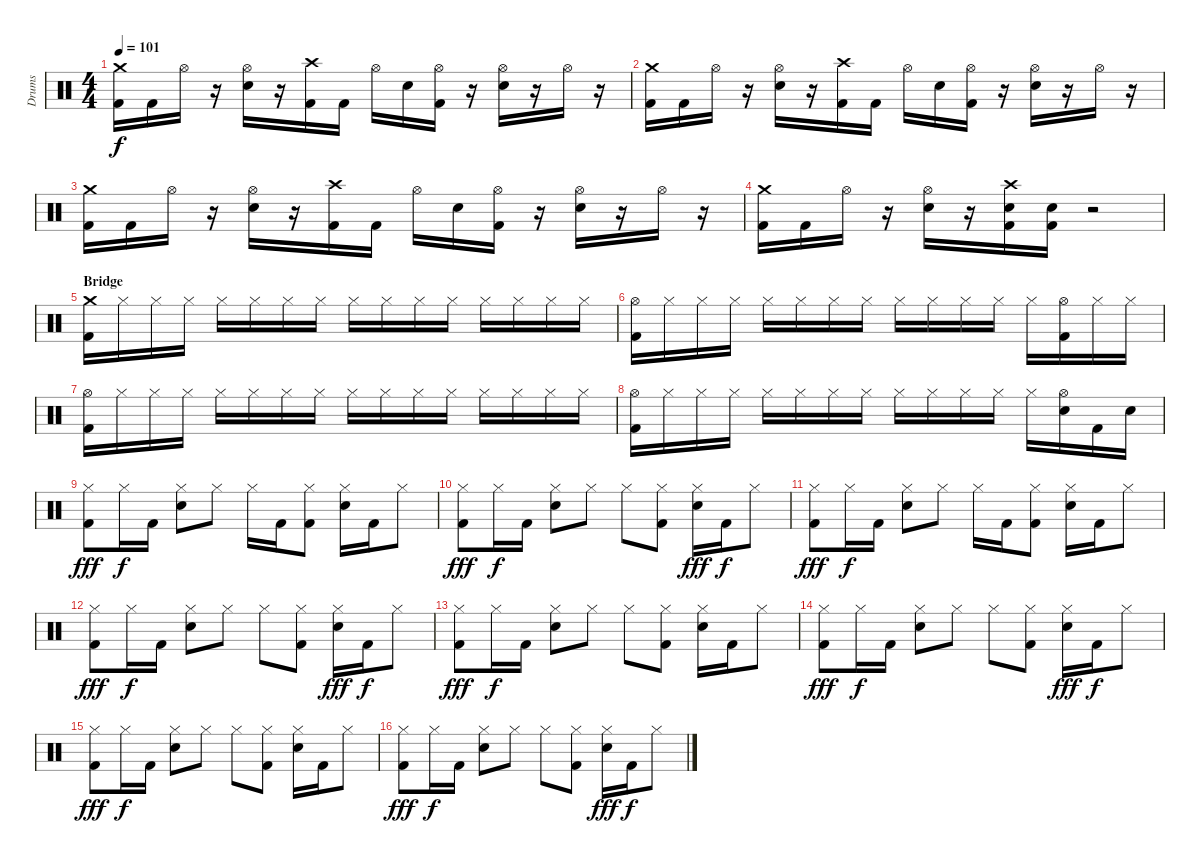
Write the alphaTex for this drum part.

\track ("Drums" "Drums") {instrument percussion}
\staff {score}
\articulation defaults
\ts (4 4)
\tempo 101
\clef neutral
\ks c
("Crash medium (hit)" "Kick (hit) 2").16{dy f} "Kick (hit) 2".16 "Hi-Hat (open)".16 r.16 ("Hi-Hat (open)" "Electric Snare (hit)").16 r.16 ("Crash high (hit)" "Kick (hit) 2").16 "Kick (hit) 2".16 "Hi-Hat (open)".16 "Electric Snare (hit)".16 ("Hi-Hat (open)" "Kick (hit) 2").16 r.16 ("Hi-Hat (open)" "Electric Snare (hit)").16 r.16 "Hi-Hat (open)".16 r.16 |
("Crash medium (hit)" "Kick (hit) 2").16 "Kick (hit) 2".16 "Hi-Hat (open)".16 r.16 ("Hi-Hat (open)" "Electric Snare (hit)").16 r.16 ("Crash high (hit)" "Kick (hit) 2").16 "Kick (hit) 2".16 "Hi-Hat (open)".16 "Electric Snare (hit)".16 ("Hi-Hat (open)" "Kick (hit) 2").16 r.16 ("Hi-Hat (open)" "Electric Snare (hit)").16 r.16 "Hi-Hat (open)".16 r.16 |
("Crash medium (hit)" "Kick (hit) 2").16 "Kick (hit) 2".16 "Hi-Hat (open)".16 r.16 ("Hi-Hat (open)" "Electric Snare (hit)").16 r.16 ("Crash high (hit)" "Kick (hit) 2").16 "Kick (hit) 2".16 "Hi-Hat (open)".16 "Electric Snare (hit)".16 ("Hi-Hat (open)" "Kick (hit) 2").16 r.16 ("Hi-Hat (open)" "Electric Snare (hit)").16 r.16 "Hi-Hat (open)".16 r.16 |
("Crash medium (hit)" "Kick (hit) 2").16 "Kick (hit) 2".16 "Hi-Hat (open)".16 r.16 ("Hi-Hat (open)" "Electric Snare (hit)").16 r.16 ("Crash high (hit)" "Electric Snare (hit)" "Kick (hit) 2").16 ("Electric Snare (hit)" "Kick (hit) 2").16 r.2 |
\section ("" "Bridge")
("Crash medium (hit)" "Kick (hit) 2").16 "Hi-Hat (closed)".16 "Hi-Hat (closed)".16 "Hi-Hat (closed)".16 "Hi-Hat (closed)".16 "Hi-Hat (closed)".16 "Hi-Hat (closed)".16 "Hi-Hat (closed)".16 "Hi-Hat (closed)".16 "Hi-Hat (closed)".16 "Hi-Hat (closed)".16 "Hi-Hat (closed)".16 "Hi-Hat (closed)".16 "Hi-Hat (closed)".16 "Hi-Hat (closed)".16 "Hi-Hat (closed)".16 |
("Hi-Hat (open)" "Kick (hit) 2").16 "Hi-Hat (closed)".16 "Hi-Hat (closed)".16 "Hi-Hat (closed)".16 "Hi-Hat (closed)".16 "Hi-Hat (closed)".16 "Hi-Hat (closed)".16 "Hi-Hat (closed)".16 "Hi-Hat (closed)".16 "Hi-Hat (closed)".16 "Hi-Hat (closed)".16 "Hi-Hat (closed)".16 "Hi-Hat (closed)".16 ("Hi-Hat (open)" "Kick (hit) 2").16 "Hi-Hat (closed)".16 "Hi-Hat (closed)".16 |
("Hi-Hat (open)" "Kick (hit) 2").16 "Hi-Hat (closed)".16 "Hi-Hat (closed)".16 "Hi-Hat (closed)".16 "Hi-Hat (closed)".16 "Hi-Hat (closed)".16 "Hi-Hat (closed)".16 "Hi-Hat (closed)".16 "Hi-Hat (closed)".16 "Hi-Hat (closed)".16 "Hi-Hat (closed)".16 "Hi-Hat (closed)".16 "Hi-Hat (closed)".16 "Hi-Hat (closed)".16 "Hi-Hat (closed)".16 "Hi-Hat (closed)".16 |
("Hi-Hat (open)" "Kick (hit) 2").16 "Hi-Hat (closed)".16 "Hi-Hat (closed)".16 "Hi-Hat (closed)".16 "Hi-Hat (closed)".16 "Hi-Hat (closed)".16 "Hi-Hat (closed)".16 "Hi-Hat (closed)".16 "Hi-Hat (closed)".16 "Hi-Hat (closed)".16 "Hi-Hat (closed)".16 "Hi-Hat (closed)".16 "Hi-Hat (closed)".16 ("Hi-Hat (open)" "Electric Snare (hit)").16 "Kick (hit) 2".16 "Electric Snare (hit)".16 |
("Hi-Hat (closed)" "Kick (hit) 2").8{dy fff} "Hi-Hat (closed)".16{dy f} "Kick (hit) 2".16 ("Hi-Hat (closed)" "Electric Snare (hit)").8 "Hi-Hat (closed)".8 "Hi-Hat (closed)".16 "Kick (hit) 2".16 ("Hi-Hat (closed)" "Kick (hit) 2").8 ("Hi-Hat (closed)" "Electric Snare (hit)").16 "Kick (hit) 2".16 "Hi-Hat (closed)".8 |
("Hi-Hat (closed)" "Kick (hit) 2").8{dy fff} "Hi-Hat (closed)".16{dy f} "Kick (hit) 2".16 ("Hi-Hat (closed)" "Electric Snare (hit)").8 "Hi-Hat (closed)".8 "Hi-Hat (closed)".8 ("Hi-Hat (closed)" "Kick (hit) 2").8 ("Hi-Hat (closed)" "Electric Snare (hit)").16{dy fff} "Kick (hit) 2".16{dy f} "Hi-Hat (closed)".8 |
("Hi-Hat (closed)" "Kick (hit) 2").8{dy fff} "Hi-Hat (closed)".16{dy f} "Kick (hit) 2".16 ("Hi-Hat (closed)" "Electric Snare (hit)").8 "Hi-Hat (closed)".8 "Hi-Hat (closed)".16 "Kick (hit) 2".16 ("Hi-Hat (closed)" "Kick (hit) 2").8 ("Hi-Hat (closed)" "Electric Snare (hit)").16 "Kick (hit) 2".16 "Hi-Hat (closed)".8 |
("Hi-Hat (closed)" "Kick (hit) 2").8{dy fff} "Hi-Hat (closed)".16{dy f} "Kick (hit) 2".16 ("Hi-Hat (closed)" "Electric Snare (hit)").8 "Hi-Hat (closed)".8 "Hi-Hat (closed)".8 ("Hi-Hat (closed)" "Kick (hit) 2").8 ("Hi-Hat (closed)" "Electric Snare (hit)").16{dy fff} "Kick (hit) 2".16{dy f} "Hi-Hat (closed)".8 |
("Hi-Hat (closed)" "Kick (hit) 2").8{dy fff} "Hi-Hat (closed)".16{dy f} "Kick (hit) 2".16 ("Hi-Hat (closed)" "Electric Snare (hit)").8 "Hi-Hat (closed)".8 "Hi-Hat (closed)".8 ("Hi-Hat (closed)" "Kick (hit) 2").8 ("Hi-Hat (closed)" "Electric Snare (hit)").16 "Kick (hit) 2".16 "Hi-Hat (closed)".8 |
("Hi-Hat (closed)" "Kick (hit) 2").8{dy fff} "Hi-Hat (closed)".16{dy f} "Kick (hit) 2".16 ("Hi-Hat (closed)" "Electric Snare (hit)").8 "Hi-Hat (closed)".8 "Hi-Hat (closed)".8 ("Hi-Hat (closed)" "Kick (hit) 2").8 ("Hi-Hat (closed)" "Electric Snare (hit)").16{dy fff} "Kick (hit) 2".16{dy f} "Hi-Hat (closed)".8 |
("Hi-Hat (closed)" "Kick (hit) 2").8{dy fff} "Hi-Hat (closed)".16{dy f} "Kick (hit) 2".16 ("Hi-Hat (closed)" "Electric Snare (hit)").8 "Hi-Hat (closed)".8 "Hi-Hat (closed)".8 ("Hi-Hat (closed)" "Kick (hit) 2").8 ("Hi-Hat (closed)" "Electric Snare (hit)").16 "Kick (hit) 2".16 "Hi-Hat (closed)".8 |
("Hi-Hat (closed)" "Kick (hit) 2").8{dy fff} "Hi-Hat (closed)".16{dy f} "Kick (hit) 2".16 ("Hi-Hat (closed)" "Electric Snare (hit)").8 "Hi-Hat (closed)".8 "Hi-Hat (closed)".8 ("Hi-Hat (closed)" "Kick (hit) 2").8 ("Hi-Hat (closed)" "Electric Snare (hit)").16{dy fff} "Kick (hit) 2".16{dy f} "Hi-Hat (closed)".8
